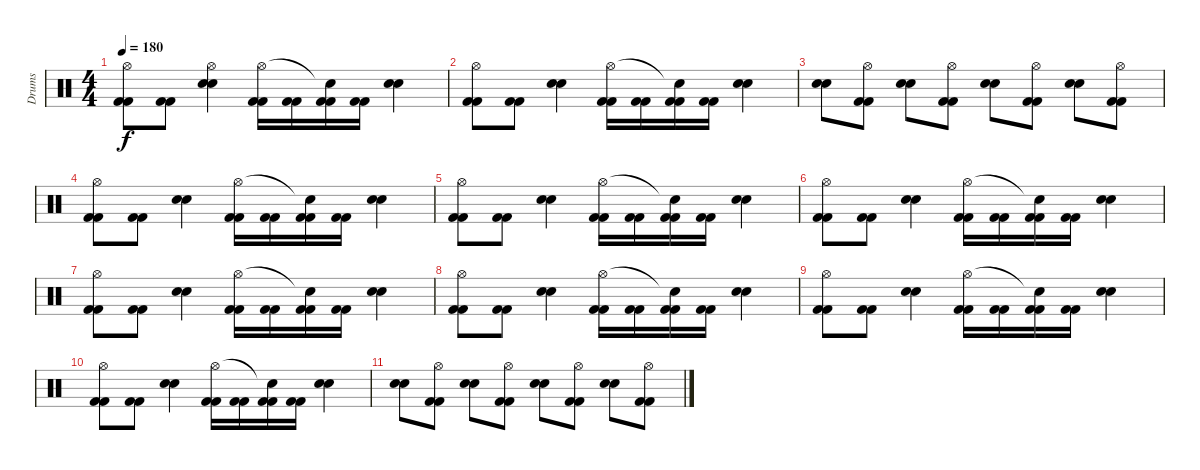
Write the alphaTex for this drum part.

\track ("Drums" "Drums") {instrument percussion}
\staff {score}
\articulation defaults
\ts (4 4)
\tempo 180
\clef neutral
\ks c
("Kick (hit) 2" "Kick (hit) 2" "Hi-Hat (open)").8{dy f} ("Kick (hit) 2" "Kick (hit) 2").8 ("Electric Snare (hit)" "Electric Snare (hit)" "Hi-Hat (open)").4 ("Kick (hit) 2" "Kick (hit) 2" "Hi-Hat (open)").16 ("Kick (hit) 2" "Kick (hit) 2").16 ("Kick (hit) 2" "Kick (hit) 2" "Snare (hit)"{t}).16 ("Kick (hit) 2" "Kick (hit) 2").16 ("Electric Snare (hit)" "Electric Snare (hit)").4 |
("Kick (hit) 2" "Kick (hit) 2" "Hi-Hat (open)").8 ("Kick (hit) 2" "Kick (hit) 2").8 ("Electric Snare (hit)" "Electric Snare (hit)").4 ("Kick (hit) 2" "Kick (hit) 2" "Hi-Hat (open)").16 ("Kick (hit) 2" "Kick (hit) 2").16 ("Kick (hit) 2" "Kick (hit) 2" "Snare (hit)"{t}).16 ("Kick (hit) 2" "Kick (hit) 2").16 ("Electric Snare (hit)" "Electric Snare (hit)").4 |
("Snare (hit) 2" "Snare (hit) 2").8 ("Kick (hit) 2" "Kick (hit) 2" "Hi-Hat (open)").8 ("Snare (hit) 2" "Snare (hit) 2").8 ("Kick (hit) 2" "Kick (hit) 2" "Hi-Hat (open)").8 ("Snare (hit) 2" "Snare (hit) 2").8 ("Kick (hit) 2" "Kick (hit) 2" "Hi-Hat (open)").8 ("Snare (hit) 2" "Snare (hit) 2").8 ("Kick (hit) 2" "Kick (hit) 2" "Hi-Hat (open)").8 |
("Kick (hit) 2" "Kick (hit) 2" "Hi-Hat (open)").8 ("Kick (hit) 2" "Kick (hit) 2").8 ("Electric Snare (hit)" "Electric Snare (hit)").4 ("Kick (hit) 2" "Kick (hit) 2" "Hi-Hat (open)").16 ("Kick (hit) 2" "Kick (hit) 2").16 ("Kick (hit) 2" "Kick (hit) 2" "Snare (hit)"{t}).16 ("Kick (hit) 2" "Kick (hit) 2").16 ("Electric Snare (hit)" "Electric Snare (hit)").4 |
("Kick (hit) 2" "Kick (hit) 2" "Hi-Hat (open)").8 ("Kick (hit) 2" "Kick (hit) 2").8 ("Electric Snare (hit)" "Electric Snare (hit)").4 ("Kick (hit) 2" "Kick (hit) 2" "Hi-Hat (open)").16 ("Kick (hit) 2" "Kick (hit) 2").16 ("Kick (hit) 2" "Kick (hit) 2" "Snare (hit)"{t}).16 ("Kick (hit) 2" "Kick (hit) 2").16 ("Electric Snare (hit)" "Electric Snare (hit)").4 |
("Kick (hit) 2" "Kick (hit) 2" "Hi-Hat (open)").8 ("Kick (hit) 2" "Kick (hit) 2").8 ("Electric Snare (hit)" "Electric Snare (hit)").4 ("Kick (hit) 2" "Kick (hit) 2" "Hi-Hat (open)").16 ("Kick (hit) 2" "Kick (hit) 2").16 ("Kick (hit) 2" "Kick (hit) 2" "Snare (hit)"{t}).16 ("Kick (hit) 2" "Kick (hit) 2").16 ("Electric Snare (hit)" "Electric Snare (hit)").4 |
("Kick (hit) 2" "Kick (hit) 2" "Hi-Hat (open)").8 ("Kick (hit) 2" "Kick (hit) 2").8 ("Electric Snare (hit)" "Electric Snare (hit)").4 ("Kick (hit) 2" "Kick (hit) 2" "Hi-Hat (open)").16 ("Kick (hit) 2" "Kick (hit) 2").16 ("Kick (hit) 2" "Kick (hit) 2" "Snare (hit)"{t}).16 ("Kick (hit) 2" "Kick (hit) 2").16 ("Electric Snare (hit)" "Electric Snare (hit)").4 |
("Kick (hit) 2" "Kick (hit) 2" "Hi-Hat (open)").8 ("Kick (hit) 2" "Kick (hit) 2").8 ("Electric Snare (hit)" "Electric Snare (hit)").4 ("Kick (hit) 2" "Kick (hit) 2" "Hi-Hat (open)").16 ("Kick (hit) 2" "Kick (hit) 2").16 ("Kick (hit) 2" "Kick (hit) 2" "Snare (hit)"{t}).16 ("Kick (hit) 2" "Kick (hit) 2").16 ("Electric Snare (hit)" "Electric Snare (hit)").4 |
("Kick (hit) 2" "Kick (hit) 2" "Hi-Hat (open)").8 ("Kick (hit) 2" "Kick (hit) 2").8 ("Electric Snare (hit)" "Electric Snare (hit)").4 ("Kick (hit) 2" "Kick (hit) 2" "Hi-Hat (open)").16 ("Kick (hit) 2" "Kick (hit) 2").16 ("Kick (hit) 2" "Kick (hit) 2" "Snare (hit)"{t}).16 ("Kick (hit) 2" "Kick (hit) 2").16 ("Electric Snare (hit)" "Electric Snare (hit)").4 |
("Kick (hit) 2" "Kick (hit) 2" "Hi-Hat (open)").8 ("Kick (hit) 2" "Kick (hit) 2").8 ("Electric Snare (hit)" "Electric Snare (hit)").4 ("Kick (hit) 2" "Kick (hit) 2" "Hi-Hat (open)").16 ("Kick (hit) 2" "Kick (hit) 2").16 ("Kick (hit) 2" "Kick (hit) 2" "Snare (hit)"{t}).16 ("Kick (hit) 2" "Kick (hit) 2").16 ("Electric Snare (hit)" "Electric Snare (hit)").4 |
("Snare (hit) 2" "Snare (hit) 2").8 ("Kick (hit) 2" "Kick (hit) 2" "Hi-Hat (open)").8 ("Snare (hit) 2" "Snare (hit) 2").8 ("Kick (hit) 2" "Kick (hit) 2" "Hi-Hat (open)").8 ("Snare (hit) 2" "Snare (hit) 2").8 ("Kick (hit) 2" "Kick (hit) 2" "Hi-Hat (open)").8 ("Snare (hit) 2" "Snare (hit) 2").8 ("Kick (hit) 2" "Kick (hit) 2" "Hi-Hat (open)").8
